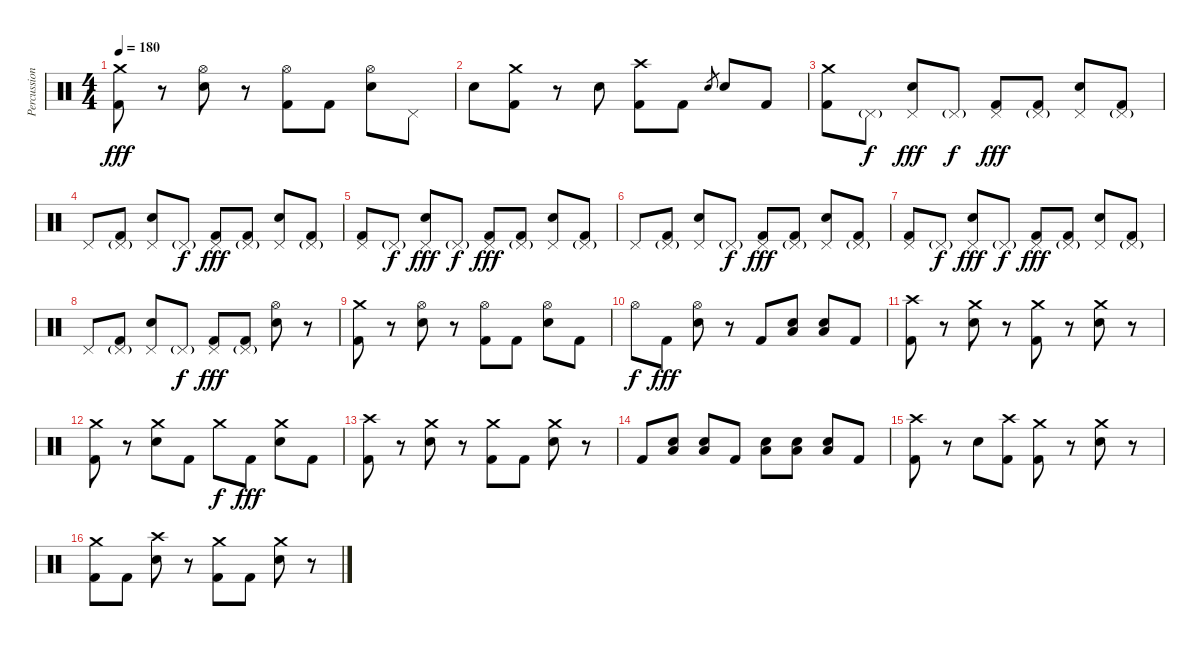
\track ("Percussions" "Percussion") {mute instrument percussion}
\staff {score}
\articulation defaults
\ts (4 4)
\tempo 180
\clef neutral
\ks c
("Crash medium (hit)" "Kick (hit) 2").8{dy fff} r.8 ("Hi-Hat (open)" "Electric Snare (hit)").8 r.8 ("Hi-Hat (open)" "Kick (hit) 2").8 "Kick (hit) 2".8 ("Hi-Hat (open)" "Electric Snare (hit)").8 "Pedal Hi-Hat (hit)".8 |
"Electric Snare (hit)".8 ("Crash medium (hit)" "Kick (hit) 2").8 r.8 "Electric Snare (hit)".8 ("Crash high (hit)" "Kick (hit) 2").8 "Kick (hit) 2".8 "Electric Snare (hit)".8{gr} "Electric Snare (hit)".8 "Kick (hit) 2".8 |
("Crash medium (hit)" "Kick (hit) 2").8 "Pedal Hi-Hat (hit)"{g}.8{dy f} ("Pedal Hi-Hat (hit)" "Electric Snare (hit)").8{dy fff} "Pedal Hi-Hat (hit)"{g}.8{dy f} ("Pedal Hi-Hat (hit)" "Kick (hit) 2").8{dy fff} ("Pedal Hi-Hat (hit)"{g} "Kick (hit) 2").8 ("Pedal Hi-Hat (hit)" "Electric Snare (hit)").8 ("Pedal Hi-Hat (hit)"{g} "Kick (hit) 2").8 |
"Pedal Hi-Hat (hit)".8 ("Pedal Hi-Hat (hit)"{g} "Kick (hit) 2").8 ("Pedal Hi-Hat (hit)" "Electric Snare (hit)").8 "Pedal Hi-Hat (hit)"{g}.8{dy f} ("Pedal Hi-Hat (hit)" "Kick (hit) 2").8{dy fff} ("Pedal Hi-Hat (hit)"{g} "Kick (hit) 2").8 ("Pedal Hi-Hat (hit)" "Electric Snare (hit)").8 ("Pedal Hi-Hat (hit)"{g} "Kick (hit) 2").8 |
("Pedal Hi-Hat (hit)" "Kick (hit) 2").8 "Pedal Hi-Hat (hit)"{g}.8{dy f} ("Pedal Hi-Hat (hit)" "Electric Snare (hit)").8{dy fff} "Pedal Hi-Hat (hit)"{g}.8{dy f} ("Pedal Hi-Hat (hit)" "Kick (hit) 2").8{dy fff} ("Pedal Hi-Hat (hit)"{g} "Kick (hit) 2").8 ("Pedal Hi-Hat (hit)" "Electric Snare (hit)").8 ("Pedal Hi-Hat (hit)"{g} "Kick (hit) 2").8 |
"Pedal Hi-Hat (hit)".8 ("Pedal Hi-Hat (hit)"{g} "Kick (hit) 2").8 ("Pedal Hi-Hat (hit)" "Electric Snare (hit)").8 "Pedal Hi-Hat (hit)"{g}.8{dy f} ("Pedal Hi-Hat (hit)" "Kick (hit) 2").8{dy fff} ("Pedal Hi-Hat (hit)"{g} "Kick (hit) 2").8 ("Pedal Hi-Hat (hit)" "Electric Snare (hit)").8 ("Pedal Hi-Hat (hit)"{g} "Kick (hit) 2").8 |
("Pedal Hi-Hat (hit)" "Kick (hit) 2").8 "Pedal Hi-Hat (hit)"{g}.8{dy f} ("Pedal Hi-Hat (hit)" "Electric Snare (hit)").8{dy fff} "Pedal Hi-Hat (hit)"{g}.8{dy f} ("Pedal Hi-Hat (hit)" "Kick (hit) 2").8{dy fff} ("Pedal Hi-Hat (hit)"{g} "Kick (hit) 2").8 ("Pedal Hi-Hat (hit)" "Electric Snare (hit)").8 ("Pedal Hi-Hat (hit)"{g} "Kick (hit) 2").8 |
"Pedal Hi-Hat (hit)".8 ("Pedal Hi-Hat (hit)"{g} "Kick (hit) 2").8 ("Pedal Hi-Hat (hit)" "Electric Snare (hit)").8 "Pedal Hi-Hat (hit)"{g}.8{dy f} ("Pedal Hi-Hat (hit)" "Kick (hit) 2").8{dy fff} ("Pedal Hi-Hat (hit)"{g} "Kick (hit) 2").8 ("Hi-Hat (open)" "Electric Snare (hit)").8 r.8 |
("Crash medium (hit)" "Kick (hit) 2").8 r.8 ("Hi-Hat (open)" "Electric Snare (hit)").8 r.8 ("Hi-Hat (open)" "Kick (hit) 2").8 "Kick (hit) 2".8 ("Hi-Hat (open)" "Electric Snare (hit)").8 "Kick (hit) 2".8 |
"Hi-Hat (open)".8{dy f} "Kick (hit) 2".8{dy fff} ("Hi-Hat (open)" "Electric Snare (hit)").8 r.8 "Kick (hit) 2".8 ("Electric Snare (hit)" "Low Floor Tom (hit)").8 ("Electric Snare (hit)" "Low Floor Tom (hit)").8 "Kick (hit) 2".8 |
("Crash high (hit)" "Kick (hit) 2").8 r.8 ("Crash medium (hit)" "Electric Snare (hit)").8 r.8 ("Crash medium (hit)" "Kick (hit) 2").8 r.8 ("Crash medium (hit)" "Electric Snare (hit)").8 r.8 |
("Crash medium (hit)" "Kick (hit) 2").8 r.8 ("Crash medium (hit)" "Electric Snare (hit)").8 "Kick (hit) 2".8 "Crash medium (hit)".8{dy f} "Kick (hit) 2".8{dy fff} ("Crash medium (hit)" "Electric Snare (hit)").8 "Kick (hit) 2".8 |
("Crash high (hit)" "Kick (hit) 2").8 r.8 ("Crash medium (hit)" "Electric Snare (hit)").8 r.8 ("Crash medium (hit)" "Kick (hit) 2").8 "Kick (hit) 2".8 ("Crash medium (hit)" "Electric Snare (hit)").8 r.8 |
"Kick (hit) 2".8 ("Electric Snare (hit)" "Low Floor Tom (hit)").8 ("Electric Snare (hit)" "Low Floor Tom (hit)").8 "Kick (hit) 2".8 ("Electric Snare (hit)" "Low Floor Tom (hit)").8 ("Electric Snare (hit)" "Low Floor Tom (hit)").8 ("Electric Snare (hit)" "Low Floor Tom (hit)").8 "Kick (hit) 2".8 |
("Crash high (hit)" "Kick (hit) 2").8 r.8 "Electric Snare (hit)".8 ("Crash high (hit)" "Kick (hit) 2").8 ("Crash medium (hit)" "Kick (hit) 2").8 r.8 ("Crash medium (hit)" "Electric Snare (hit)").8 r.8 |
("Crash medium (hit)" "Kick (hit) 2").8 "Kick (hit) 2".8 ("Crash high (hit)" "Electric Snare (hit)").8 r.8 ("Crash medium (hit)" "Kick (hit) 2").8 "Kick (hit) 2".8 ("Crash medium (hit)" "Electric Snare (hit)").8 r.8
